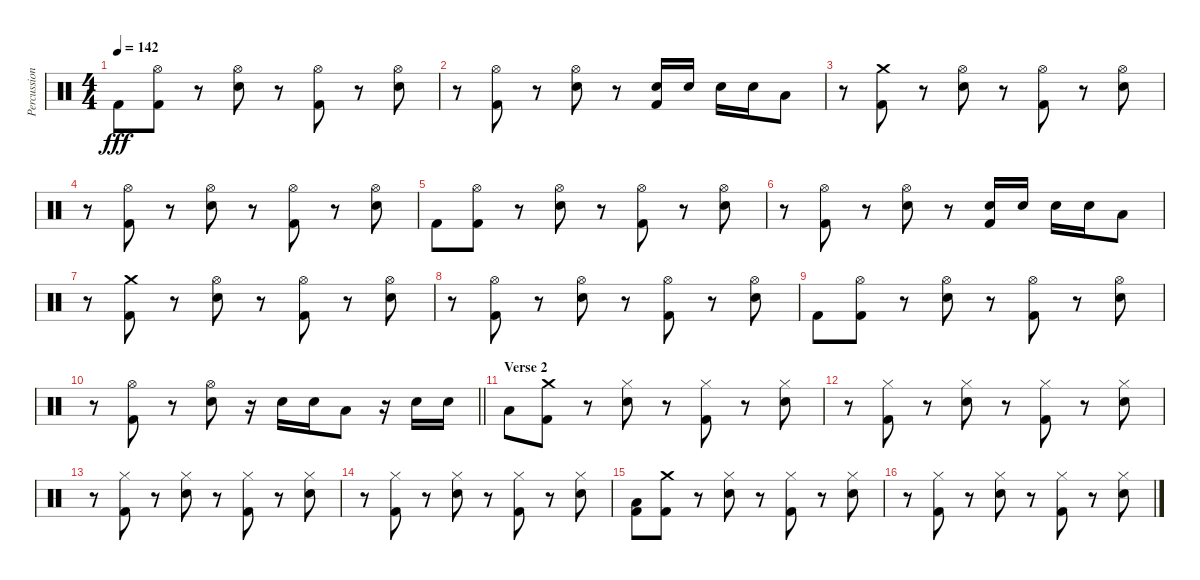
\track ("Percussion" "Percussion") {instrument percussion}
\staff {score}
\articulation defaults
\ts (4 4)
\tempo 142
\clef neutral
\ks c "Kick (hit) 2".8{dy fff}
("Hi-Hat (open)" "Kick (hit) 2").8 r.8 ("Hi-Hat (open)" "Electric Snare (hit)").8 r.8 ("Hi-Hat (open)" "Kick (hit) 2").8 r.8 ("Hi-Hat (open)" "Electric Snare (hit)").8 |
r.8 ("Hi-Hat (open)" "Kick (hit) 2").8 r.8 ("Hi-Hat (open)" "Electric Snare (hit)").8 r.8 ("Electric Snare (hit)" "Kick (hit) 2").16 "Electric Snare (hit)".16 "Electric Snare (hit)".16 "Electric Snare (hit)".16 "Low Tom (hit)".8 |
r.8 ("Crash medium (hit)" "Kick (hit) 2").8 r.8 ("Hi-Hat (open)" "Electric Snare (hit)").8 r.8 ("Hi-Hat (open)" "Kick (hit) 2").8 r.8 ("Hi-Hat (open)" "Electric Snare (hit)").8 |
r.8 ("Hi-Hat (open)" "Kick (hit) 2").8 r.8 ("Hi-Hat (open)" "Electric Snare (hit)").8 r.8 ("Hi-Hat (open)" "Kick (hit) 2").8 r.8 ("Hi-Hat (open)" "Electric Snare (hit)").8 |
"Kick (hit) 2".8 ("Hi-Hat (open)" "Kick (hit) 2").8 r.8 ("Hi-Hat (open)" "Electric Snare (hit)").8 r.8 ("Hi-Hat (open)" "Kick (hit) 2").8 r.8 ("Hi-Hat (open)" "Electric Snare (hit)").8 |
r.8 ("Hi-Hat (open)" "Kick (hit) 2").8 r.8 ("Hi-Hat (open)" "Electric Snare (hit)").8 r.8 ("Electric Snare (hit)" "Kick (hit) 2").16 "Electric Snare (hit)".16 "Electric Snare (hit)".16 "Electric Snare (hit)".16 "Low Tom (hit)".8 |
r.8 ("Crash medium (hit)" "Kick (hit) 2").8 r.8 ("Hi-Hat (open)" "Electric Snare (hit)").8 r.8 ("Hi-Hat (open)" "Kick (hit) 2").8 r.8 ("Hi-Hat (open)" "Electric Snare (hit)").8 |
r.8 ("Hi-Hat (open)" "Kick (hit) 2").8 r.8 ("Hi-Hat (open)" "Electric Snare (hit)").8 r.8 ("Hi-Hat (open)" "Kick (hit) 2").8 r.8 ("Hi-Hat (open)" "Electric Snare (hit)").8 |
"Kick (hit) 2".8 ("Hi-Hat (open)" "Kick (hit) 2").8 r.8 ("Hi-Hat (open)" "Electric Snare (hit)").8 r.8 ("Hi-Hat (open)" "Kick (hit) 2").8 r.8 ("Hi-Hat (open)" "Electric Snare (hit)").8 |
\barLineRight lightlight
r.8 ("Hi-Hat (open)" "Kick (hit) 2").8 r.8 ("Hi-Hat (open)" "Electric Snare (hit)").8 r.16 "Electric Snare (hit)".16 "Electric Snare (hit)".16 "Low Tom (hit)".8 r.16 "Electric Snare (hit)".16 "Electric Snare (hit)".16 |
\section ("" "Verse 2")
"Low Tom (hit)".8 ("Crash medium (hit)" "Kick (hit) 2").8 r.8 ("Hi-Hat (closed)" "Electric Snare (hit)").8 r.8 ("Hi-Hat (closed)" "Kick (hit) 2").8 r.8 ("Hi-Hat (closed)" "Electric Snare (hit)").8 |
r.8 ("Hi-Hat (closed)" "Kick (hit) 2").8 r.8 ("Hi-Hat (closed)" "Electric Snare (hit)").8 r.8 ("Hi-Hat (closed)" "Kick (hit) 2").8 r.8 ("Hi-Hat (closed)" "Electric Snare (hit)").8 |
r.8 ("Hi-Hat (closed)" "Kick (hit) 2").8 r.8 ("Hi-Hat (closed)" "Electric Snare (hit)").8 r.8 ("Hi-Hat (closed)" "Kick (hit) 2").8 r.8 ("Hi-Hat (closed)" "Electric Snare (hit)").8 |
r.8 ("Hi-Hat (closed)" "Kick (hit) 2").8 r.8 ("Hi-Hat (closed)" "Electric Snare (hit)").8 r.8 ("Hi-Hat (closed)" "Kick (hit) 2").8 r.8 ("Hi-Hat (closed)" "Electric Snare (hit)").8 |
("Low Tom (hit)" "Kick (hit) 2").8 ("Crash medium (hit)" "Kick (hit) 2").8 r.8 ("Hi-Hat (closed)" "Electric Snare (hit)").8 r.8 ("Hi-Hat (closed)" "Kick (hit) 2").8 r.8 ("Hi-Hat (closed)" "Electric Snare (hit)").8 |
r.8 ("Hi-Hat (closed)" "Kick (hit) 2").8 r.8 ("Hi-Hat (closed)" "Electric Snare (hit)").8 r.8 ("Hi-Hat (closed)" "Kick (hit) 2").8 r.8 ("Hi-Hat (closed)" "Electric Snare (hit)").8
